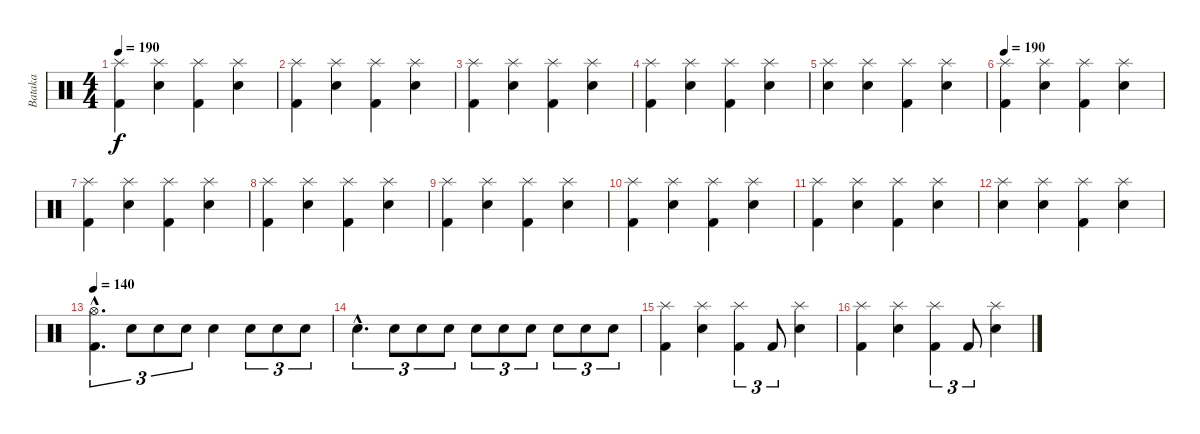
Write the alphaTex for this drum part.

\track ("Bataka" "Bataka") {instrument percussion}
\staff {score}
\articulation defaults
\ts (4 4)
\tempo 190
\clef neutral
\ks c
("Splash (hit)" "Kick (hit) 2").4{dy f} ("Splash (hit)" "Electric Snare (hit)").4 ("Splash (hit)" "Kick (hit) 2").4 ("Splash (hit)" "Electric Snare (hit)").4 |
("Splash (hit)" "Kick (hit) 2").4 ("Splash (hit)" "Electric Snare (hit)").4 ("Splash (hit)" "Kick (hit) 2").4 ("Splash (hit)" "Electric Snare (hit)").4 |
("Splash (hit)" "Kick (hit) 2").4 ("Splash (hit)" "Electric Snare (hit)").4 ("Splash (hit)" "Kick (hit) 2").4 ("Splash (hit)" "Electric Snare (hit)").4 |
("Splash (hit)" "Kick (hit) 2").4 ("Splash (hit)" "Electric Snare (hit)").4 ("Splash (hit)" "Kick (hit) 2").4 ("Splash (hit)" "Electric Snare (hit)").4 |
("Splash (hit)" "Electric Snare (hit)").4 ("Splash (hit)" "Electric Snare (hit)").4 ("Splash (hit)" "Kick (hit) 2").4 ("Splash (hit)" "Electric Snare (hit)").4 |
\tempo 190
("Splash (hit)" "Kick (hit) 2").4 ("Splash (hit)" "Electric Snare (hit)").4 ("Splash (hit)" "Kick (hit) 2").4 ("Splash (hit)" "Electric Snare (hit)").4 |
("Splash (hit)" "Kick (hit) 2").4 ("Splash (hit)" "Electric Snare (hit)").4 ("Splash (hit)" "Kick (hit) 2").4 ("Splash (hit)" "Electric Snare (hit)").4 |
("Splash (hit)" "Kick (hit) 2").4 ("Splash (hit)" "Electric Snare (hit)").4 ("Splash (hit)" "Kick (hit) 2").4 ("Splash (hit)" "Electric Snare (hit)").4 |
("Splash (hit)" "Kick (hit) 2").4 ("Splash (hit)" "Electric Snare (hit)").4 ("Splash (hit)" "Kick (hit) 2").4 ("Splash (hit)" "Electric Snare (hit)").4 |
("Splash (hit)" "Kick (hit) 2").4 ("Splash (hit)" "Electric Snare (hit)").4 ("Splash (hit)" "Kick (hit) 2").4 ("Splash (hit)" "Electric Snare (hit)").4 |
("Splash (hit)" "Kick (hit) 2").4 ("Splash (hit)" "Electric Snare (hit)").4 ("Splash (hit)" "Kick (hit) 2").4 ("Splash (hit)" "Electric Snare (hit)").4 |
("Splash (hit)" "Electric Snare (hit)").4 ("Splash (hit)" "Electric Snare (hit)").4 ("Splash (hit)" "Kick (hit) 2").4 ("Splash (hit)" "Electric Snare (hit)").4 |
\tempo 140
("Hi-Hat (open)"{hac} "Kick (hit) 2"{hac}).4{d tu (3 2)} "Electric Snare (hit)".8{tu (3 2)} "Electric Snare (hit)".8{tu (3 2)} "Electric Snare (hit)".8{tu (3 2)} "Electric Snare (hit)".4 "Electric Snare (hit)".8{tu (3 2)} "Electric Snare (hit)".8{tu (3 2)} "Electric Snare (hit)".8{tu (3 2)} |
"Electric Snare (hit)"{hac}.4{d tu (3 2)} "Electric Snare (hit)".8{tu (3 2)} "Electric Snare (hit)".8{tu (3 2)} "Electric Snare (hit)".8{tu (3 2)} "Electric Snare (hit)".8{tu (3 2)} "Electric Snare (hit)".8{tu (3 2)} "Electric Snare (hit)".8{tu (3 2)} "Electric Snare (hit)".8{tu (3 2)} "Electric Snare (hit)".8{tu (3 2)} "Electric Snare (hit)".8{tu (3 2)} |
("Splash (hit)" "Kick (hit) 2").4 ("Splash (hit)" "Electric Snare (hit)").4 ("Splash (hit)" "Kick (hit) 2").4{tu (3 2)} "Kick (hit) 2".8{tu (3 2)} ("Splash (hit)" "Electric Snare (hit)").4 |
("Splash (hit)" "Kick (hit) 2").4 ("Splash (hit)" "Electric Snare (hit)").4 ("Splash (hit)" "Kick (hit) 2").4{tu (3 2)} "Kick (hit) 2".8{tu (3 2)} ("Splash (hit)" "Electric Snare (hit)").4
